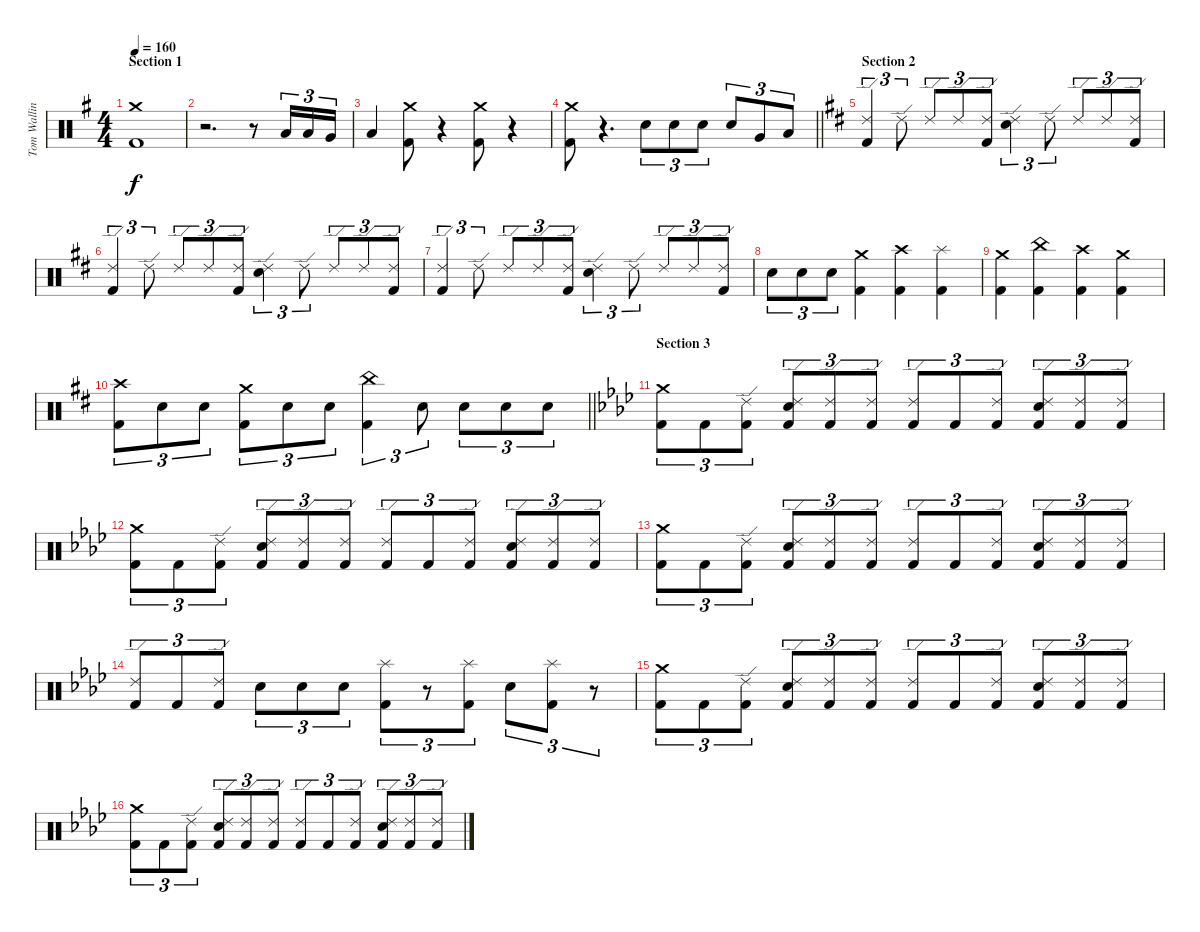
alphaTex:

\track ("Tom Walling (drums)" "Tom Wallin") {instrument percussion}
\staff {score}
\articulation defaults
\ts (4 4)
\section ("" "Section 1")
\tempo 160
\clef neutral
\ks eminor
("Crash medium (hit)" "Kick (hit) 2").1{dy f} |
r.2{d} r.8 "Low Tom (hit)".16{tu (3 2)} "Low Tom (hit)".16{tu (3 2)} "Very Low Tom (hit)".16{tu (3 2)} |
"Low Floor Tom (hit)".4 ("Crash medium (hit)" "Kick (hit) 2").8 r.4 ("Crash medium (hit)" "Kick (hit) 2").8 r.4 |
\barLineRight lightlight
("Crash medium (hit)" "Kick (hit) 2").8 r.4{d} "Electric Snare (hit)".8{tu (3 2)} "Electric Snare (hit)".8{tu (3 2)} "Electric Snare (hit)".8{tu (3 2)} "Electric Snare (hit)".8{tu (3 2)} "Very Low Tom (hit)".8{tu (3 2)} "Low Floor Tom (hit)".8{tu (3 2)} |
\section ("" "Section 2")
\ks bminor
("Ride (edge) 2" "Kick (hit) 2").4{tu (3 2)} "Ride (edge) 2".8{tu (3 2)} "Ride (edge) 2".8{tu (3 2)} "Ride (edge) 2".8{tu (3 2)} ("Ride (edge) 2" "Kick (hit) 2").8{tu (3 2)} ("Ride (edge) 2" "Electric Snare (hit)").4{tu (3 2)} "Ride (edge) 2".8{tu (3 2)} "Ride (edge) 2".8{tu (3 2)} "Ride (edge) 2".8{tu (3 2)} ("Ride (edge) 2" "Kick (hit) 2").8{tu (3 2)} |
("Ride (edge) 2" "Kick (hit) 2").4{tu (3 2)} "Ride (edge) 2".8{tu (3 2)} "Ride (edge) 2".8{tu (3 2)} "Ride (edge) 2".8{tu (3 2)} ("Ride (edge) 2" "Kick (hit) 2").8{tu (3 2)} ("Ride (edge) 2" "Electric Snare (hit)").4{tu (3 2)} "Ride (edge) 2".8{tu (3 2)} "Ride (edge) 2".8{tu (3 2)} "Ride (edge) 2".8{tu (3 2)} ("Ride (edge) 2" "Kick (hit) 2").8{tu (3 2)} |
("Ride (edge) 2" "Kick (hit) 2").4{tu (3 2)} "Ride (edge) 2".8{tu (3 2)} "Ride (edge) 2".8{tu (3 2)} "Ride (edge) 2".8{tu (3 2)} ("Ride (edge) 2" "Kick (hit) 2").8{tu (3 2)} ("Ride (edge) 2" "Electric Snare (hit)").4{tu (3 2)} "Ride (edge) 2".8{tu (3 2)} "Ride (edge) 2".8{tu (3 2)} "Ride (edge) 2".8{tu (3 2)} ("Ride (edge) 2" "Kick (hit) 2").8{tu (3 2)} |
"Electric Snare (hit)".8{tu (3 2)} "Electric Snare (hit)".8{tu (3 2)} "Electric Snare (hit)".8{tu (3 2)} ("Crash medium (hit)" "Kick (hit) 2").4 ("Crash high (hit)" "Kick (hit) 2").4 ("Splash (hit)" "Kick (hit) 2").4 |
("Crash medium (hit)" "Kick (hit) 2").4 ("China (hit)" "Kick (hit) 2").4 ("Crash high (hit)" "Kick (hit) 2").4 ("Crash medium (hit)" "Kick (hit) 2").4 |
\barLineRight lightlight
("Crash high (hit)" "Kick (hit) 2").8{tu (3 2)} "Electric Snare (hit)".8{tu (3 2)} "Electric Snare (hit)".8{tu (3 2)} ("Crash medium (hit)" "Kick (hit) 2").8{tu (3 2)} "Electric Snare (hit)".8{tu (3 2)} "Electric Snare (hit)".8{tu (3 2)} ("China (hit)" "Kick (hit) 2").4{tu (3 2)} "Electric Snare (hit)".8{tu (3 2)} "Electric Snare (hit)".8{tu (3 2)} "Electric Snare (hit)".8{tu (3 2)} "Electric Snare (hit)".8{tu (3 2)} |
\section ("" "Section 3")
\ks fminor
("Crash medium (hit)" "Kick (hit) 2").8{tu (3 2) volume 16 balance 8} "Kick (hit) 2".8{tu (3 2)} ("Ride (edge) 2" "Kick (hit) 2").8{tu (3 2)} ("Ride (edge) 2" "Electric Snare (hit)" "Kick (hit) 2").8{tu (3 2)} ("Ride (edge) 2" "Kick (hit) 2").8{tu (3 2)} ("Ride (edge) 2" "Kick (hit) 2").8{tu (3 2)} ("Ride (edge) 2" "Kick (hit) 2").8{tu (3 2)} "Kick (hit) 2".8{tu (3 2)} ("Ride (edge) 2" "Kick (hit) 2").8{tu (3 2)} ("Ride (edge) 2" "Electric Snare (hit)" "Kick (hit) 2").8{tu (3 2)} ("Ride (edge) 2" "Kick (hit) 2").8{tu (3 2)} ("Ride (edge) 2" "Kick (hit) 2").8{tu (3 2)} |
("Crash medium (hit)" "Kick (hit) 2").8{tu (3 2)} "Kick (hit) 2".8{tu (3 2)} ("Ride (edge) 2" "Kick (hit) 2").8{tu (3 2)} ("Ride (edge) 2" "Electric Snare (hit)" "Kick (hit) 2").8{tu (3 2)} ("Ride (edge) 2" "Kick (hit) 2").8{tu (3 2)} ("Ride (edge) 2" "Kick (hit) 2").8{tu (3 2)} ("Ride (edge) 2" "Kick (hit) 2").8{tu (3 2)} "Kick (hit) 2".8{tu (3 2)} ("Ride (edge) 2" "Kick (hit) 2").8{tu (3 2)} ("Ride (edge) 2" "Electric Snare (hit)" "Kick (hit) 2").8{tu (3 2)} ("Ride (edge) 2" "Kick (hit) 2").8{tu (3 2)} ("Ride (edge) 2" "Kick (hit) 2").8{tu (3 2)} |
("Crash medium (hit)" "Kick (hit) 2").8{tu (3 2)} "Kick (hit) 2".8{tu (3 2)} ("Ride (edge) 2" "Kick (hit) 2").8{tu (3 2)} ("Ride (edge) 2" "Electric Snare (hit)" "Kick (hit) 2").8{tu (3 2)} ("Ride (edge) 2" "Kick (hit) 2").8{tu (3 2)} ("Ride (edge) 2" "Kick (hit) 2").8{tu (3 2)} ("Ride (edge) 2" "Kick (hit) 2").8{tu (3 2)} "Kick (hit) 2".8{tu (3 2)} ("Ride (edge) 2" "Kick (hit) 2").8{tu (3 2)} ("Ride (edge) 2" "Electric Snare (hit)" "Kick (hit) 2").8{tu (3 2)} ("Ride (edge) 2" "Kick (hit) 2").8{tu (3 2)} ("Ride (edge) 2" "Kick (hit) 2").8{tu (3 2)} |
("Ride (edge) 2" "Kick (hit) 2").8{tu (3 2)} "Kick (hit) 2".8{tu (3 2)} ("Ride (edge) 2" "Kick (hit) 2").8{tu (3 2)} "Electric Snare (hit)".8{tu (3 2)} "Electric Snare (hit)".8{tu (3 2)} "Electric Snare (hit)".8{tu (3 2)} ("Splash (hit)" "Kick (hit) 2").8{tu (3 2)} r.8{tu (3 2)} ("Splash (hit)" "Kick (hit) 2").8{tu (3 2)} "Electric Snare (hit)".8{tu (3 2)} ("Splash (hit)" "Kick (hit) 2").8{tu (3 2)} r.8{tu (3 2)} |
("Crash medium (hit)" "Kick (hit) 2").8{tu (3 2)} "Kick (hit) 2".8{tu (3 2)} ("Ride (edge) 2" "Kick (hit) 2").8{tu (3 2)} ("Ride (edge) 2" "Electric Snare (hit)" "Kick (hit) 2").8{tu (3 2)} ("Ride (edge) 2" "Kick (hit) 2").8{tu (3 2)} ("Ride (edge) 2" "Kick (hit) 2").8{tu (3 2)} ("Ride (edge) 2" "Kick (hit) 2").8{tu (3 2)} "Kick (hit) 2".8{tu (3 2)} ("Ride (edge) 2" "Kick (hit) 2").8{tu (3 2)} ("Ride (edge) 2" "Electric Snare (hit)" "Kick (hit) 2").8{tu (3 2)} ("Ride (edge) 2" "Kick (hit) 2").8{tu (3 2)} ("Ride (edge) 2" "Kick (hit) 2").8{tu (3 2)} |
("Crash medium (hit)" "Kick (hit) 2").8{tu (3 2)} "Kick (hit) 2".8{tu (3 2)} ("Ride (edge) 2" "Kick (hit) 2").8{tu (3 2)} ("Ride (edge) 2" "Electric Snare (hit)" "Kick (hit) 2").8{tu (3 2)} ("Ride (edge) 2" "Kick (hit) 2").8{tu (3 2)} ("Ride (edge) 2" "Kick (hit) 2").8{tu (3 2)} ("Ride (edge) 2" "Kick (hit) 2").8{tu (3 2)} "Kick (hit) 2".8{tu (3 2)} ("Ride (edge) 2" "Kick (hit) 2").8{tu (3 2)} ("Ride (edge) 2" "Electric Snare (hit)" "Kick (hit) 2").8{tu (3 2)} ("Ride (edge) 2" "Kick (hit) 2").8{tu (3 2)} ("Ride (edge) 2" "Kick (hit) 2").8{tu (3 2)}
